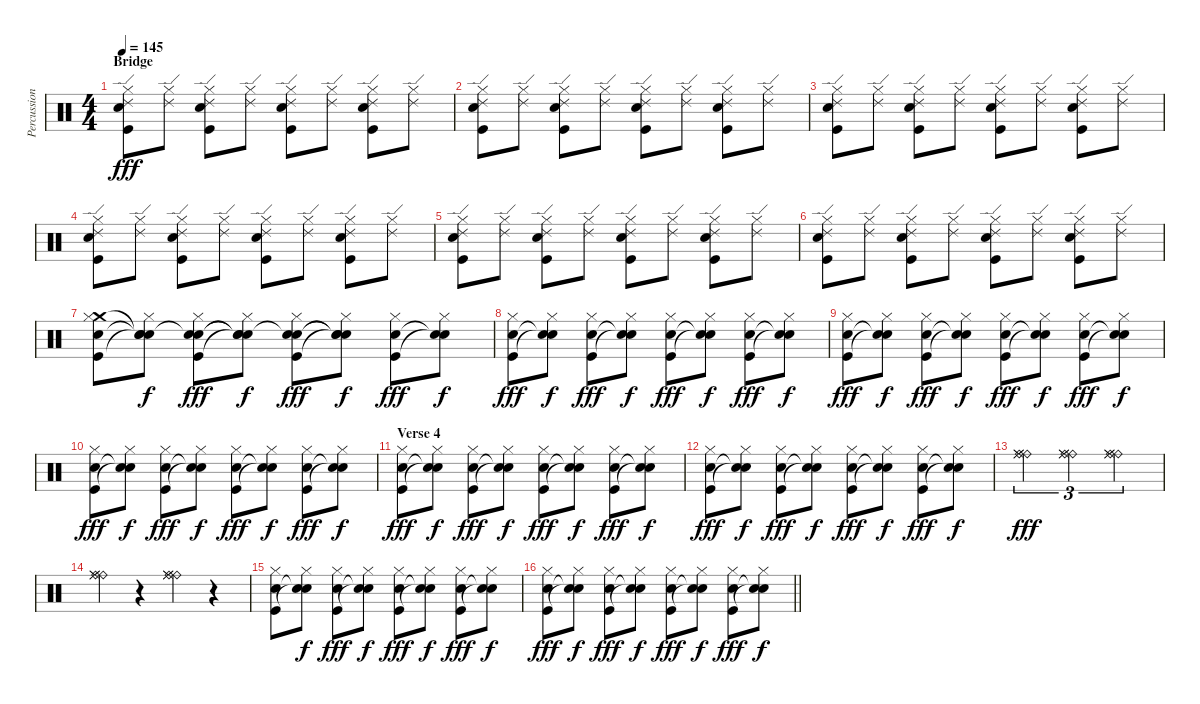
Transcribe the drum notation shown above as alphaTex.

\track ("Percussion" "Percussion") {instrument percussion}
\staff {score}
\articulation defaults
\ts (4 4)
\section ("" "Bridge")
\tempo 145
\clef neutral
\ks c
("Ride (edge) 2" "Hi-Hat (closed)" "Snare (hit) 2" "Kick (hit)").8{dy fff} ("Ride (edge) 2" "Hi-Hat (closed)").8 ("Ride (edge) 2" "Hi-Hat (closed)" "Snare (hit) 2" "Kick (hit)").8 ("Ride (edge) 2" "Hi-Hat (closed)").8 ("Ride (edge) 2" "Hi-Hat (closed)" "Snare (hit) 2" "Kick (hit)").8 ("Ride (edge) 2" "Hi-Hat (closed)").8 ("Ride (edge) 2" "Hi-Hat (closed)" "Snare (hit) 2" "Kick (hit)").8 ("Ride (edge) 2" "Hi-Hat (closed)").8 |
("Ride (edge) 2" "Hi-Hat (closed)" "Snare (hit) 2" "Kick (hit)").8 ("Ride (edge) 2" "Hi-Hat (closed)").8 ("Ride (edge) 2" "Hi-Hat (closed)" "Snare (hit) 2" "Kick (hit)").8 ("Ride (edge) 2" "Hi-Hat (closed)").8 ("Ride (edge) 2" "Hi-Hat (closed)" "Snare (hit) 2" "Kick (hit)").8 ("Ride (edge) 2" "Hi-Hat (closed)").8 ("Ride (edge) 2" "Hi-Hat (closed)" "Snare (hit) 2" "Kick (hit)").8 ("Ride (edge) 2" "Hi-Hat (closed)").8 |
("Ride (edge) 2" "Hi-Hat (closed)" "Snare (hit) 2" "Kick (hit)").8 ("Ride (edge) 2" "Hi-Hat (closed)").8 ("Ride (edge) 2" "Hi-Hat (closed)" "Snare (hit) 2" "Kick (hit)").8 ("Ride (edge) 2" "Hi-Hat (closed)").8 ("Ride (edge) 2" "Hi-Hat (closed)" "Snare (hit) 2" "Kick (hit)").8 ("Ride (edge) 2" "Hi-Hat (closed)").8 ("Ride (edge) 2" "Hi-Hat (closed)" "Snare (hit) 2" "Kick (hit)").8 ("Ride (edge) 2" "Hi-Hat (closed)").8 |
("Ride (edge) 2" "Hi-Hat (closed)" "Snare (hit) 2" "Kick (hit)").8 ("Ride (edge) 2" "Hi-Hat (closed)").8 ("Ride (edge) 2" "Hi-Hat (closed)" "Snare (hit) 2" "Kick (hit)").8 ("Ride (edge) 2" "Hi-Hat (closed)").8 ("Ride (edge) 2" "Hi-Hat (closed)" "Snare (hit) 2" "Kick (hit)").8 ("Ride (edge) 2" "Hi-Hat (closed)").8 ("Ride (edge) 2" "Hi-Hat (closed)" "Snare (hit) 2" "Kick (hit)").8 ("Ride (edge) 2" "Hi-Hat (closed)").8 |
("Ride (edge) 2" "Hi-Hat (closed)" "Snare (hit) 2" "Kick (hit)").8 ("Ride (edge) 2" "Hi-Hat (closed)").8 ("Ride (edge) 2" "Hi-Hat (closed)" "Snare (hit) 2" "Kick (hit)").8 ("Ride (edge) 2" "Hi-Hat (closed)").8 ("Ride (edge) 2" "Hi-Hat (closed)" "Snare (hit) 2" "Kick (hit)").8 ("Ride (edge) 2" "Hi-Hat (closed)").8 ("Ride (edge) 2" "Hi-Hat (closed)" "Snare (hit) 2" "Kick (hit)").8 ("Ride (edge) 2" "Hi-Hat (closed)").8 |
("Ride (edge) 2" "Hi-Hat (closed)" "Snare (hit) 2" "Kick (hit)").8 ("Ride (edge) 2" "Hi-Hat (closed)").8 ("Ride (edge) 2" "Hi-Hat (closed)" "Snare (hit) 2" "Kick (hit)").8 ("Ride (edge) 2" "Hi-Hat (closed)").8 ("Ride (edge) 2" "Hi-Hat (closed)" "Snare (hit) 2" "Kick (hit)").8 ("Ride (edge) 2" "Hi-Hat (closed)").8 ("Ride (edge) 2" "Hi-Hat (closed)" "Snare (hit) 2" "Kick (hit)").8 ("Ride (edge) 2" "Hi-Hat (closed)").8 |
("Crash medium (hit)" "Hi-Hat (closed)" "Snare (hit) 2" "Kick (hit)").8 ("Snare (hit)"{t} "Hi-Hat (closed)" "Snare (hit)"{t} "Snare (hit)"{t}).8{dy f} ("Snare (hit)"{t} "Hi-Hat (closed)" "Snare (hit) 2" "Kick (hit)").8{dy fff} ("Snare (hit)"{t} "Hi-Hat (closed)" "Snare (hit)"{t} "Snare (hit)"{t}).8{dy f} ("Snare (hit)"{t} "Hi-Hat (closed)" "Snare (hit) 2" "Kick (hit)").8{dy fff} ("Snare (hit)"{t} "Hi-Hat (closed)" "Snare (hit)"{t} "Snare (hit)"{t}).8{dy f} ("Hi-Hat (closed)" "Snare (hit) 2" "Kick (hit)").8{dy fff} ("Hi-Hat (closed)" "Snare (hit)"{t} "Snare (hit)"{t}).8{dy f} |
("Hi-Hat (closed)" "Snare (hit) 2" "Kick (hit)").8{dy fff} ("Hi-Hat (closed)" "Snare (hit)"{t} "Snare (hit)"{t}).8{dy f} ("Hi-Hat (closed)" "Snare (hit) 2" "Kick (hit)").8{dy fff} ("Hi-Hat (closed)" "Snare (hit)"{t} "Snare (hit)"{t}).8{dy f} ("Hi-Hat (closed)" "Snare (hit) 2" "Kick (hit)").8{dy fff} ("Hi-Hat (closed)" "Snare (hit)"{t} "Snare (hit)"{t}).8{dy f} ("Hi-Hat (closed)" "Snare (hit) 2" "Kick (hit)").8{dy fff} ("Hi-Hat (closed)" "Snare (hit)"{t} "Snare (hit)"{t}).8{dy f} |
("Hi-Hat (closed)" "Snare (hit) 2" "Kick (hit)").8{dy fff} ("Hi-Hat (closed)" "Snare (hit)"{t} "Snare (hit)"{t}).8{dy f} ("Hi-Hat (closed)" "Snare (hit) 2" "Kick (hit)").8{dy fff} ("Hi-Hat (closed)" "Snare (hit)"{t} "Snare (hit)"{t}).8{dy f} ("Hi-Hat (closed)" "Snare (hit) 2" "Kick (hit)").8{dy fff} ("Hi-Hat (closed)" "Snare (hit)"{t} "Snare (hit)"{t}).8{dy f} ("Hi-Hat (closed)" "Snare (hit) 2" "Kick (hit)").8{dy fff} ("Hi-Hat (closed)" "Snare (hit)"{t} "Snare (hit)"{t}).8{dy f} |
("Hi-Hat (closed)" "Snare (hit) 2" "Kick (hit)").8{dy fff} ("Hi-Hat (closed)" "Snare (hit)"{t} "Snare (hit)"{t}).8{dy f} ("Hi-Hat (closed)" "Snare (hit) 2" "Kick (hit)").8{dy fff} ("Hi-Hat (closed)" "Snare (hit)"{t} "Snare (hit)"{t}).8{dy f} ("Hi-Hat (closed)" "Snare (hit) 2" "Kick (hit)").8{dy fff} ("Hi-Hat (closed)" "Snare (hit)"{t} "Snare (hit)"{t}).8{dy f} ("Hi-Hat (closed)" "Snare (hit) 2" "Kick (hit)").8{dy fff} ("Hi-Hat (closed)" "Snare (hit)"{t} "Snare (hit)"{t}).8{dy f} |
\section ("" "Verse 4")
("Hi-Hat (closed)" "Snare (hit) 2" "Kick (hit)").8{dy fff} ("Hi-Hat (closed)" "Snare (hit)"{t} "Snare (hit)"{t}).8{dy f} ("Hi-Hat (closed)" "Snare (hit) 2" "Kick (hit)").8{dy fff} ("Hi-Hat (closed)" "Snare (hit)"{t} "Snare (hit)"{t}).8{dy f} ("Hi-Hat (closed)" "Snare (hit) 2" "Kick (hit)").8{dy fff} ("Hi-Hat (closed)" "Snare (hit)"{t} "Snare (hit)"{t}).8{dy f} ("Hi-Hat (closed)" "Snare (hit) 2" "Kick (hit)").8{dy fff} ("Hi-Hat (closed)" "Snare (hit)"{t} "Snare (hit)"{t}).8{dy f} |
("Hi-Hat (closed)" "Snare (hit) 2" "Kick (hit)").8{dy fff} ("Hi-Hat (closed)" "Snare (hit)"{t} "Snare (hit)"{t}).8{dy f} ("Hi-Hat (closed)" "Snare (hit) 2" "Kick (hit)").8{dy fff} ("Hi-Hat (closed)" "Snare (hit)"{t} "Snare (hit)"{t}).8{dy f} ("Hi-Hat (closed)" "Snare (hit) 2" "Kick (hit)").8{dy fff} ("Hi-Hat (closed)" "Snare (hit)"{t} "Snare (hit)"{t}).8{dy f} ("Hi-Hat (closed)" "Snare (hit) 2" "Kick (hit)").8{dy fff} ("Hi-Hat (closed)" "Snare (hit)"{t} "Snare (hit)"{t}).8{dy f} |
("Ride (bell)" "Ride (bell)" "Ride (middle)" "Ride (middle)").2{tu (3 2) dy fff volume 16} ("Ride (bell)" "Ride (bell)" "Ride (middle)" "Ride (middle)").2{tu (3 2)} ("Ride (bell)" "Ride (bell)" "Ride (middle)" "Ride (middle)").2{tu (3 2)} |
("Ride (bell)" "Ride (bell)" "Ride (middle)" "Ride (middle)").4 r.4 ("Ride (bell)" "Ride (bell)" "Ride (middle)" "Ride (middle)").4 r.4 |
("Hi-Hat (closed)" "Snare (hit) 2" "Kick (hit)").8{volume 12} ("Hi-Hat (closed)" "Snare (hit)"{t} "Snare (hit)"{t}).8{dy f} ("Hi-Hat (closed)" "Snare (hit) 2" "Kick (hit)").8{dy fff} ("Hi-Hat (closed)" "Snare (hit)"{t} "Snare (hit)"{t}).8{dy f} ("Hi-Hat (closed)" "Snare (hit) 2" "Kick (hit)").8{dy fff} ("Hi-Hat (closed)" "Snare (hit)"{t} "Snare (hit)"{t}).8{dy f} ("Hi-Hat (closed)" "Snare (hit) 2" "Kick (hit)").8{dy fff} ("Hi-Hat (closed)" "Snare (hit)"{t} "Snare (hit)"{t}).8{dy f} |
\barLineRight lightlight
("Hi-Hat (closed)" "Snare (hit) 2" "Kick (hit)").8{dy fff} ("Hi-Hat (closed)" "Snare (hit)"{t} "Snare (hit)"{t}).8{dy f} ("Hi-Hat (closed)" "Snare (hit) 2" "Kick (hit)").8{dy fff} ("Hi-Hat (closed)" "Snare (hit)"{t} "Snare (hit)"{t}).8{dy f} ("Hi-Hat (closed)" "Snare (hit) 2" "Kick (hit)").8{dy fff} ("Hi-Hat (closed)" "Snare (hit)"{t} "Snare (hit)"{t}).8{dy f} ("Hi-Hat (closed)" "Snare (hit) 2" "Kick (hit)").8{dy fff} ("Hi-Hat (closed)" "Snare (hit)"{t} "Snare (hit)"{t}).8{dy f}
